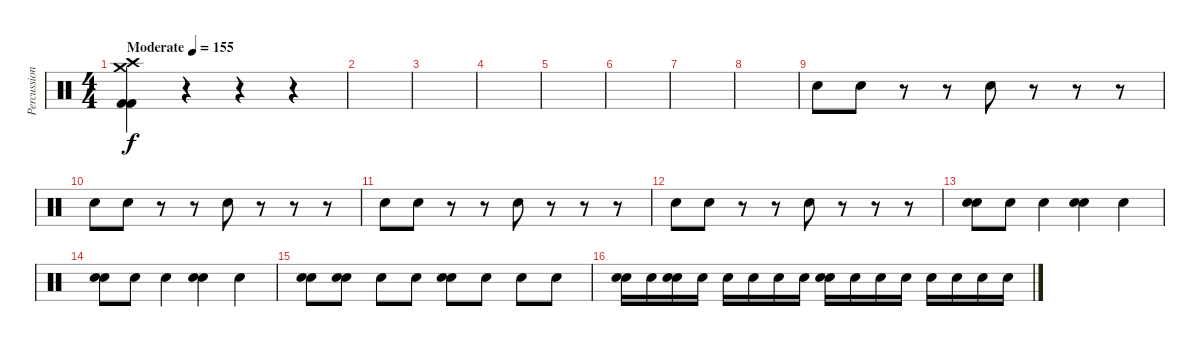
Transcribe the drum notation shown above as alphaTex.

\track ("Percussion" "Percussion") {instrument percussion}
\staff {score}
\articulation defaults
\ts (4 4)
\tempo (155 "Moderate")
\clef neutral
\ks c
("Crash high (hit)" "Crash medium (hit)" "Kick (hit) 2" "Kick (hit) 2").4{dy f} r.4 r.4 r.4 |
|
|
|
|
|
|
|
"Electric Snare (hit)".8 "Electric Snare (hit)".8 r.8 r.8 "Electric Snare (hit)".8 r.8 r.8 r.8 |
"Electric Snare (hit)".8 "Electric Snare (hit)".8 r.8 r.8 "Electric Snare (hit)".8 r.8 r.8 r.8 |
"Electric Snare (hit)".8 "Electric Snare (hit)".8 r.8 r.8 "Electric Snare (hit)".8 r.8 r.8 r.8 |
"Hand Clap (hit)".8 "Hand Clap (hit)".8 r.8 r.8 "Hand Clap (hit)".8 r.8 r.8 r.8 |
("Hand Clap (hit)" "Snare (hit) 2").8 "Hand Clap (hit)".8 "Snare (hit) 2".4 ("Hand Clap (hit)" "Snare (hit) 2").4 "Snare (hit) 2".4 |
("Hand Clap (hit)" "Snare (hit) 2").8 "Hand Clap (hit)".8 "Snare (hit) 2".4 ("Hand Clap (hit)" "Snare (hit) 2").4 "Snare (hit) 2".4 |
("Hand Clap (hit)" "Snare (hit) 2").8 ("Hand Clap (hit)" "Snare (hit) 2").8 "Snare (hit) 2".8 "Snare (hit) 2".8 ("Hand Clap (hit)" "Snare (hit) 2").8 "Snare (hit) 2".8 "Snare (hit) 2".8 "Snare (hit) 2".8 |
("Hand Clap (hit)" "Snare (hit) 2").16 "Snare (hit) 2".16 ("Hand Clap (hit)" "Snare (hit) 2").16 "Snare (hit) 2".16 "Snare (hit) 2".16 "Snare (hit) 2".16 "Snare (hit) 2".16 "Snare (hit) 2".16 ("Hand Clap (hit)" "Snare (hit) 2").16 "Snare (hit) 2".16 "Snare (hit) 2".16 "Snare (hit) 2".16 "Snare (hit) 2".16 "Snare (hit) 2".16 "Snare (hit) 2".16 "Snare (hit) 2".16
